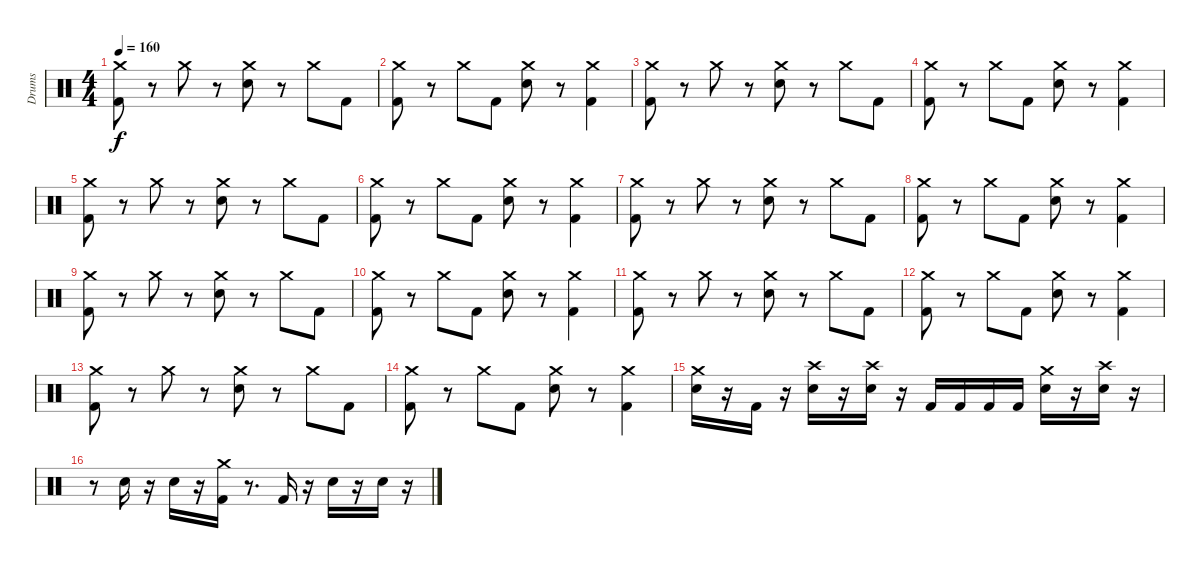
\track ("Drums" "Drums") {instrument percussion}
\staff {score}
\articulation defaults
\ts (4 4)
\tempo 160
\clef neutral
\ks c
("Kick (hit) 2" "Crash medium (hit)").8{dy f} r.8 "Crash medium (hit)".8 r.8 ("Electric Snare (hit)" "Crash medium (hit)").8 r.8 "Crash medium (hit)".8 "Kick (hit) 2".8 |
("Kick (hit) 2" "Crash medium (hit)").8 r.8 "Crash medium (hit)".8 "Kick (hit) 2".8 ("Electric Snare (hit)" "Crash medium (hit)").8 r.8 ("Kick (hit) 2" "Crash medium (hit)").4 |
("Kick (hit) 2" "Crash medium (hit)").8 r.8 "Crash medium (hit)".8 r.8 ("Electric Snare (hit)" "Crash medium (hit)").8 r.8 "Crash medium (hit)".8 "Kick (hit) 2".8 |
("Kick (hit) 2" "Crash medium (hit)").8 r.8 "Crash medium (hit)".8 "Kick (hit) 2".8 ("Electric Snare (hit)" "Crash medium (hit)").8 r.8 ("Kick (hit) 2" "Crash medium (hit)").4 |
("Kick (hit) 2" "Crash medium (hit)").8 r.8 "Crash medium (hit)".8 r.8 ("Electric Snare (hit)" "Crash medium (hit)").8 r.8 "Crash medium (hit)".8 "Kick (hit) 2".8 |
("Kick (hit) 2" "Crash medium (hit)").8 r.8 "Crash medium (hit)".8 "Kick (hit) 2".8 ("Electric Snare (hit)" "Crash medium (hit)").8 r.8 ("Kick (hit) 2" "Crash medium (hit)").4 |
("Kick (hit) 2" "Crash medium (hit)").8 r.8 "Crash medium (hit)".8 r.8 ("Electric Snare (hit)" "Crash medium (hit)").8 r.8 "Crash medium (hit)".8 "Kick (hit) 2".8 |
("Kick (hit) 2" "Crash medium (hit)").8 r.8 "Crash medium (hit)".8 "Kick (hit) 2".8 ("Electric Snare (hit)" "Crash medium (hit)").8 r.8 ("Kick (hit) 2" "Crash medium (hit)").4 |
("Kick (hit) 2" "Crash medium (hit)").8 r.8 "Crash medium (hit)".8 r.8 ("Electric Snare (hit)" "Crash medium (hit)").8 r.8 "Crash medium (hit)".8 "Kick (hit) 2".8 |
("Kick (hit) 2" "Crash medium (hit)").8 r.8 "Crash medium (hit)".8 "Kick (hit) 2".8 ("Electric Snare (hit)" "Crash medium (hit)").8 r.8 ("Kick (hit) 2" "Crash medium (hit)").4 |
("Kick (hit) 2" "Crash medium (hit)").8 r.8 "Crash medium (hit)".8 r.8 ("Electric Snare (hit)" "Crash medium (hit)").8 r.8 "Crash medium (hit)".8 "Kick (hit) 2".8 |
("Kick (hit) 2" "Crash medium (hit)").8 r.8 "Crash medium (hit)".8 "Kick (hit) 2".8 ("Electric Snare (hit)" "Crash medium (hit)").8 r.8 ("Kick (hit) 2" "Crash medium (hit)").4 |
("Kick (hit) 2" "Crash medium (hit)").8 r.8 "Crash medium (hit)".8 r.8 ("Electric Snare (hit)" "Crash medium (hit)").8 r.8 "Crash medium (hit)".8 "Kick (hit) 2".8 |
("Kick (hit) 2" "Crash medium (hit)").8 r.8 "Crash medium (hit)".8 "Kick (hit) 2".8 ("Electric Snare (hit)" "Crash medium (hit)").8 r.8 ("Kick (hit) 2" "Crash medium (hit)").4 |
("Crash medium (hit)" "Electric Snare (hit)").16 r.16 "Kick (hit) 2".16 r.16 ("Crash high (hit)" "Electric Snare (hit)").16 r.16 ("Crash high (hit)" "Electric Snare (hit)").16 r.16 "Kick (hit) 2".16 "Kick (hit) 2".16 "Kick (hit) 2".16 "Kick (hit) 2".16 ("Crash medium (hit)" "Electric Snare (hit)").16 r.16 ("Electric Snare (hit)" "Crash high (hit)").16 r.16 |
r.8 "Electric Snare (hit)".16 r.16 "Electric Snare (hit)".16 r.16 ("Crash medium (hit)" "Kick (hit) 2").16 r.8{d} "Kick (hit) 2".16 r.16 "Electric Snare (hit)".16 r.16 "Electric Snare (hit)".16 r.16
